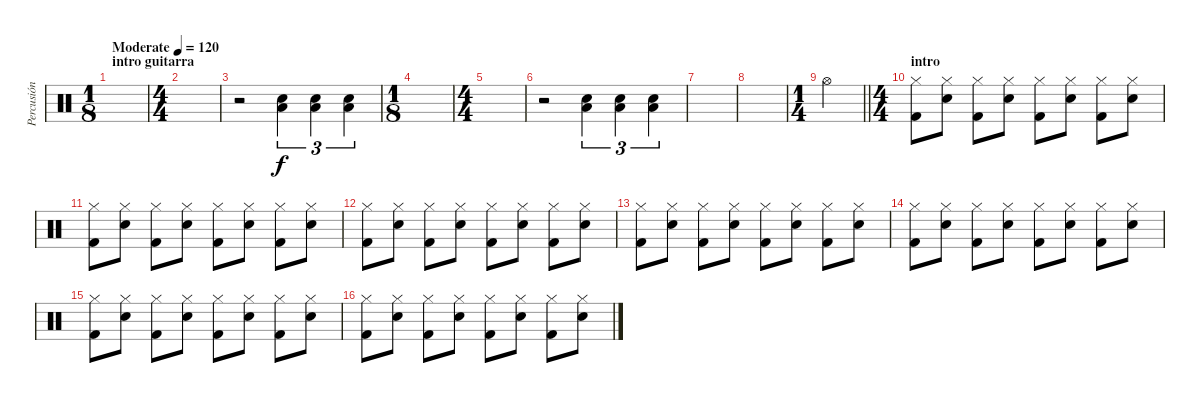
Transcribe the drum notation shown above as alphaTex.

\track ("Percusión" "Percusión") {instrument percussion}
\staff {score}
\articulation defaults
\ts (1 8)
\section ("" "intro guitarra")
\tempo (120 "Moderate")
\clef neutral
\ks c
|
\ts (4 4)
|
r.2 ("Electric Snare (hit)" "Low Tom (hit)").4{tu (3 2)} ("Electric Snare (hit)" "Low Tom (hit)").4{tu (3 2)} ("Electric Snare (hit)" "Low Tom (hit)").4{tu (3 2)} |
\ts (1 8)
|
\ts (4 4)
|
r.2 ("Electric Snare (hit)" "Low Tom (hit)").4{tu (3 2)} ("Electric Snare (hit)" "Low Tom (hit)").4{tu (3 2)} ("Electric Snare (hit)" "Low Tom (hit)").4{tu (3 2)} |
|
|
\ts (1 4)
\barLineRight lightlight "Hi-Hat (open)".4
|
\ts (4 4)
\section ("" "intro")
("Hi-Hat (closed)" "Kick (hit) 2").8 ("Hi-Hat (closed)" "Electric Snare (hit)").8 ("Hi-Hat (closed)" "Kick (hit) 2").8 ("Hi-Hat (closed)" "Electric Snare (hit)").8 ("Hi-Hat (closed)" "Kick (hit) 2").8 ("Hi-Hat (closed)" "Electric Snare (hit)").8 ("Hi-Hat (closed)" "Kick (hit) 2").8 ("Hi-Hat (closed)" "Electric Snare (hit)").8 |
("Hi-Hat (closed)" "Kick (hit) 2").8 ("Hi-Hat (closed)" "Electric Snare (hit)").8 ("Hi-Hat (closed)" "Kick (hit) 2").8 ("Hi-Hat (closed)" "Electric Snare (hit)").8 ("Hi-Hat (closed)" "Kick (hit) 2").8 ("Hi-Hat (closed)" "Electric Snare (hit)").8 ("Hi-Hat (closed)" "Kick (hit) 2").8 ("Hi-Hat (closed)" "Electric Snare (hit)").8 |
("Hi-Hat (closed)" "Kick (hit) 2").8 ("Hi-Hat (closed)" "Electric Snare (hit)").8 ("Hi-Hat (closed)" "Kick (hit) 2").8 ("Hi-Hat (closed)" "Electric Snare (hit)").8 ("Hi-Hat (closed)" "Kick (hit) 2").8 ("Hi-Hat (closed)" "Electric Snare (hit)").8 ("Hi-Hat (closed)" "Kick (hit) 2").8 ("Hi-Hat (closed)" "Electric Snare (hit)").8 |
("Hi-Hat (closed)" "Kick (hit) 2").8 ("Hi-Hat (closed)" "Electric Snare (hit)").8 ("Hi-Hat (closed)" "Kick (hit) 2").8 ("Hi-Hat (closed)" "Electric Snare (hit)").8 ("Hi-Hat (closed)" "Kick (hit) 2").8 ("Hi-Hat (closed)" "Electric Snare (hit)").8 ("Hi-Hat (closed)" "Kick (hit) 2").8 ("Hi-Hat (closed)" "Electric Snare (hit)").8 |
("Hi-Hat (closed)" "Kick (hit) 2").8 ("Hi-Hat (closed)" "Electric Snare (hit)").8 ("Hi-Hat (closed)" "Kick (hit) 2").8 ("Hi-Hat (closed)" "Electric Snare (hit)").8 ("Hi-Hat (closed)" "Kick (hit) 2").8 ("Hi-Hat (closed)" "Electric Snare (hit)").8 ("Hi-Hat (closed)" "Kick (hit) 2").8 ("Hi-Hat (closed)" "Electric Snare (hit)").8 |
("Hi-Hat (closed)" "Kick (hit) 2").8 ("Hi-Hat (closed)" "Electric Snare (hit)").8 ("Hi-Hat (closed)" "Kick (hit) 2").8 ("Hi-Hat (closed)" "Electric Snare (hit)").8 ("Hi-Hat (closed)" "Kick (hit) 2").8 ("Hi-Hat (closed)" "Electric Snare (hit)").8 ("Hi-Hat (closed)" "Kick (hit) 2").8 ("Hi-Hat (closed)" "Electric Snare (hit)").8 |
("Hi-Hat (closed)" "Kick (hit) 2").8 ("Hi-Hat (closed)" "Electric Snare (hit)").8 ("Hi-Hat (closed)" "Kick (hit) 2").8 ("Hi-Hat (closed)" "Electric Snare (hit)").8 ("Hi-Hat (closed)" "Kick (hit) 2").8 ("Hi-Hat (closed)" "Electric Snare (hit)").8 ("Hi-Hat (closed)" "Kick (hit) 2").8 ("Hi-Hat (closed)" "Electric Snare (hit)").8
